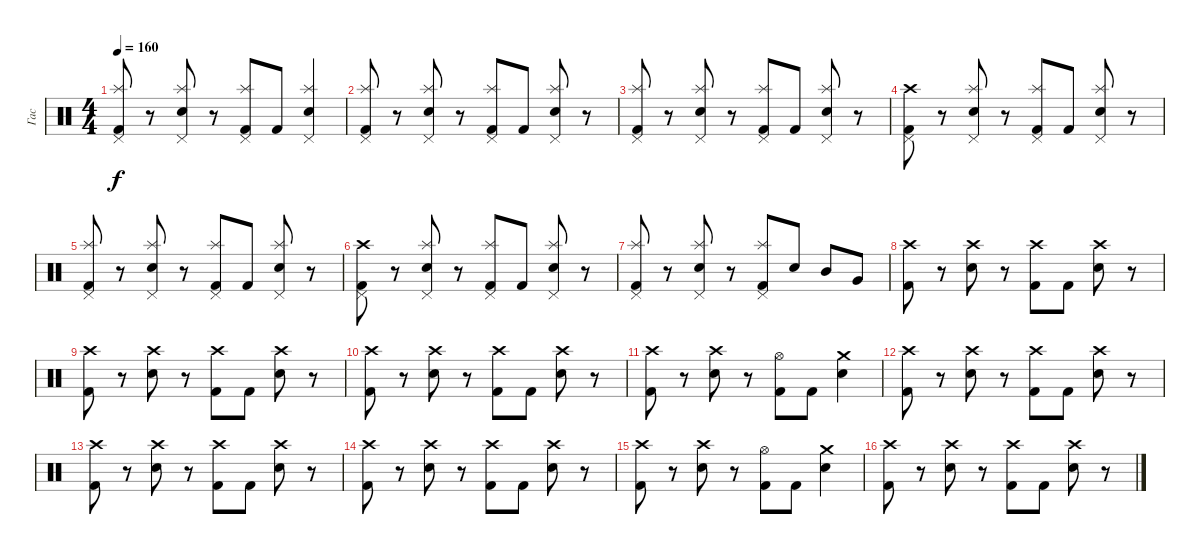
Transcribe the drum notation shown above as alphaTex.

\track ("Гас" "Гас") {instrument percussion}
\staff {score}
\articulation defaults
\ts (4 4)
\tempo 160
\clef neutral
\ks c
("Pedal Hi-Hat (hit)" "Splash (hit)" "Kick (hit) 2").8{dy f} r.8 ("Pedal Hi-Hat (hit)" "Splash (hit)" "Electric Snare (hit)").8 r.8 ("Pedal Hi-Hat (hit)" "Splash (hit)" "Kick (hit) 2").8 "Kick (hit) 2".8 ("Pedal Hi-Hat (hit)" "Splash (hit)" "Electric Snare (hit)").4 |
("Pedal Hi-Hat (hit)" "Splash (hit)" "Kick (hit) 2").8 r.8 ("Pedal Hi-Hat (hit)" "Splash (hit)" "Electric Snare (hit)").8 r.8 ("Pedal Hi-Hat (hit)" "Splash (hit)" "Kick (hit) 2").8 "Kick (hit) 2".8 ("Pedal Hi-Hat (hit)" "Splash (hit)" "Electric Snare (hit)").8 r.8 |
("Pedal Hi-Hat (hit)" "Splash (hit)" "Kick (hit) 2").8 r.8 ("Pedal Hi-Hat (hit)" "Splash (hit)" "Electric Snare (hit)").8 r.8 ("Pedal Hi-Hat (hit)" "Splash (hit)" "Kick (hit) 2").8 "Kick (hit) 2".8 ("Pedal Hi-Hat (hit)" "Splash (hit)" "Electric Snare (hit)").8 r.8 |
("Pedal Hi-Hat (hit)" "Crash high (hit)" "Kick (hit) 2").8 r.8 ("Pedal Hi-Hat (hit)" "Splash (hit)" "Electric Snare (hit)").8 r.8 ("Pedal Hi-Hat (hit)" "Splash (hit)" "Kick (hit) 2").8 "Kick (hit) 2".8 ("Pedal Hi-Hat (hit)" "Splash (hit)" "Electric Snare (hit)").8 r.8 |
("Pedal Hi-Hat (hit)" "Splash (hit)" "Kick (hit) 2").8 r.8 ("Pedal Hi-Hat (hit)" "Splash (hit)" "Electric Snare (hit)").8 r.8 ("Pedal Hi-Hat (hit)" "Splash (hit)" "Kick (hit) 2").8 "Kick (hit) 2".8 ("Pedal Hi-Hat (hit)" "Splash (hit)" "Electric Snare (hit)").8 r.8 |
("Pedal Hi-Hat (hit)" "Crash high (hit)" "Kick (hit) 2").8 r.8 ("Pedal Hi-Hat (hit)" "Splash (hit)" "Electric Snare (hit)").8 r.8 ("Pedal Hi-Hat (hit)" "Splash (hit)" "Kick (hit) 2").8 "Kick (hit) 2".8 ("Pedal Hi-Hat (hit)" "Splash (hit)" "Electric Snare (hit)").8 r.8 |
("Pedal Hi-Hat (hit)" "Splash (hit)" "Kick (hit) 2").8 r.8 ("Pedal Hi-Hat (hit)" "Splash (hit)" "Electric Snare (hit)").8 r.8 ("Pedal Hi-Hat (hit)" "Splash (hit)" "Kick (hit) 2").8 "Electric Snare (hit)".8 "Mid Tom (hit)".8 "Very Low Tom (hit)".8 |
("Crash high (hit)" "Kick (hit) 2").8 r.8 ("Crash high (hit)" "Electric Snare (hit)").8 r.8 ("Crash high (hit)" "Kick (hit) 2").8 "Kick (hit) 2".8 ("Crash high (hit)" "Electric Snare (hit)").8 r.8 |
("Crash high (hit)" "Kick (hit) 2").8 r.8 ("Crash high (hit)" "Electric Snare (hit)").8 r.8 ("Crash high (hit)" "Kick (hit) 2").8 "Kick (hit) 2".8 ("Crash high (hit)" "Electric Snare (hit)").8 r.8 |
("Crash high (hit)" "Kick (hit) 2").8 r.8 ("Crash high (hit)" "Electric Snare (hit)").8 r.8 ("Crash high (hit)" "Kick (hit) 2").8 "Kick (hit) 2".8 ("Crash high (hit)" "Electric Snare (hit)").8 r.8 |
("Crash high (hit)" "Kick (hit) 2").8 r.8 ("Crash high (hit)" "Electric Snare (hit)").8 r.8 ("Hi-Hat (open)" "Kick (hit) 2").8 "Kick (hit) 2".8 ("Crash medium (hit)" "Electric Snare (hit)").4 |
("Crash high (hit)" "Kick (hit) 2").8 r.8 ("Crash high (hit)" "Electric Snare (hit)").8 r.8 ("Crash high (hit)" "Kick (hit) 2").8 "Kick (hit) 2".8 ("Crash high (hit)" "Electric Snare (hit)").8 r.8 |
("Crash high (hit)" "Kick (hit) 2").8 r.8 ("Crash high (hit)" "Electric Snare (hit)").8 r.8 ("Crash high (hit)" "Kick (hit) 2").8 "Kick (hit) 2".8 ("Crash high (hit)" "Electric Snare (hit)").8 r.8 |
("Crash high (hit)" "Kick (hit) 2").8 r.8 ("Crash high (hit)" "Electric Snare (hit)").8 r.8 ("Crash high (hit)" "Kick (hit) 2").8 "Kick (hit) 2".8 ("Crash high (hit)" "Electric Snare (hit)").8 r.8 |
("Crash high (hit)" "Kick (hit) 2").8 r.8 ("Crash high (hit)" "Electric Snare (hit)").8 r.8 ("Hi-Hat (open)" "Kick (hit) 2").8 "Kick (hit) 2".8 ("Crash medium (hit)" "Electric Snare (hit)").4 |
("Crash high (hit)" "Kick (hit) 2").8 r.8 ("Crash high (hit)" "Electric Snare (hit)").8 r.8 ("Crash high (hit)" "Kick (hit) 2").8 "Kick (hit) 2".8 ("Crash high (hit)" "Electric Snare (hit)").8 r.8
